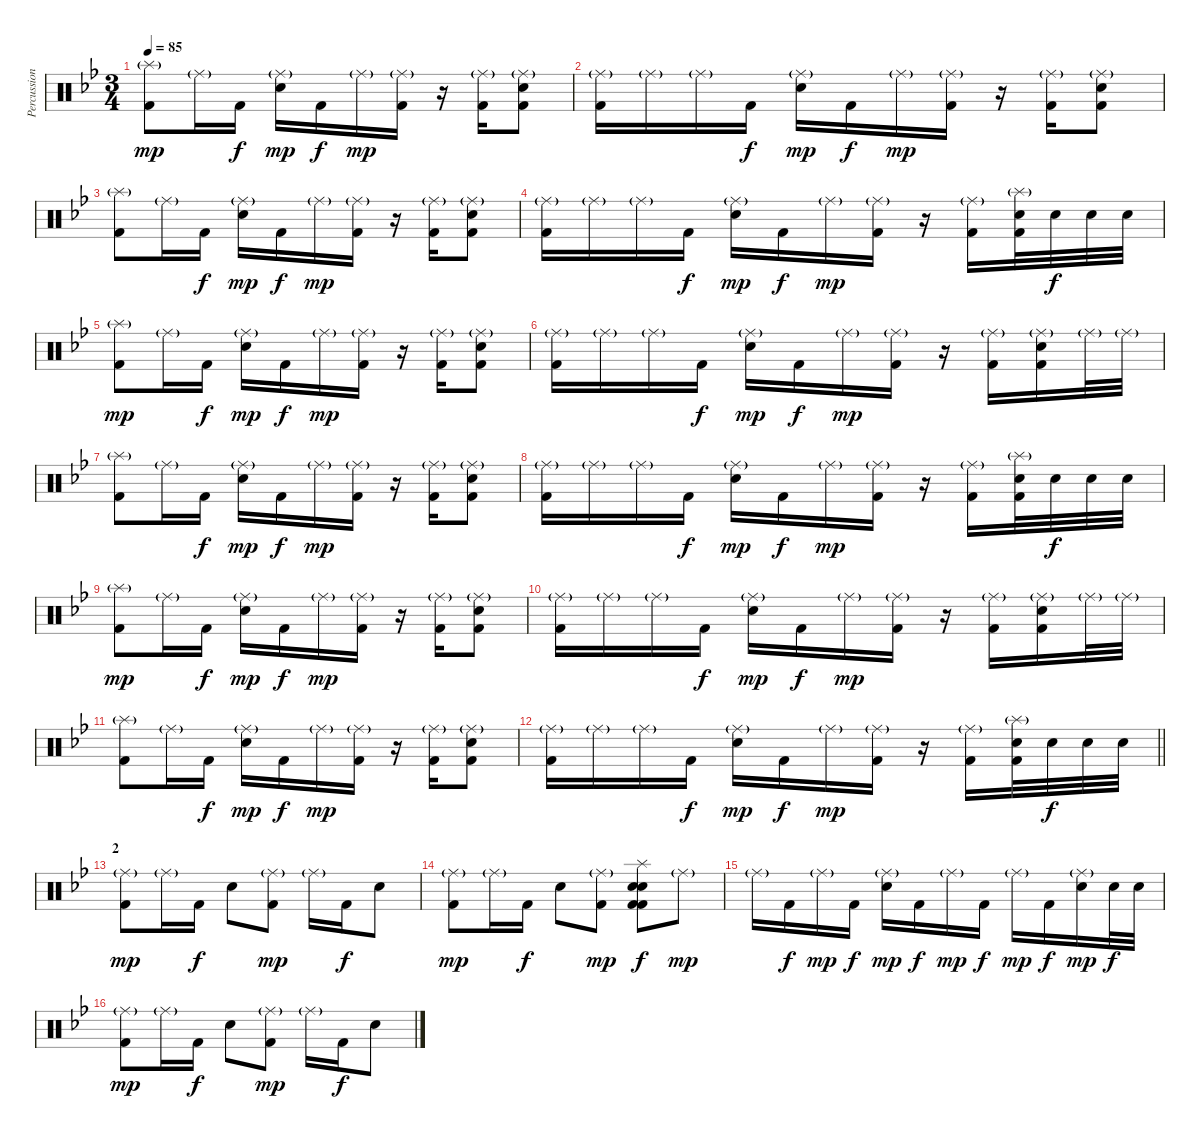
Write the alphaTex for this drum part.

\track ("Percussion" "Percussion") {instrument percussion}
\staff {score}
\articulation defaults
\ts (3 4)
\tempo 85
\clef neutral
\ks bb
("Splash (hit)"{g} "Kick (hit) 2").8{dy mp} "Ride (middle)"{g}.16 "Kick (hit) 2".16{dy f} ("Ride (middle)"{g} "Snare (hit) 2").16{dy mp} "Kick (hit) 2".16{dy f} "Ride (middle)"{g}.16{dy mp} ("Ride (middle)"{g} "Kick (hit) 2").16 r.16 ("Ride (middle)"{g} "Kick (hit) 2").16 ("Ride (middle)"{g} "Snare (hit) 2" "Kick (hit) 2").8 |
("Ride (middle)"{g} "Kick (hit) 2").16 "Ride (middle)"{g}.16 "Ride (middle)"{g}.16 "Kick (hit) 2".16{dy f} ("Ride (middle)"{g} "Snare (hit) 2").16{dy mp} "Kick (hit) 2".16{dy f} "Ride (middle)"{g}.16{dy mp} ("Ride (middle)"{g} "Kick (hit) 2").16 r.16 ("Ride (middle)"{g} "Kick (hit) 2").16 ("Ride (middle)"{g} "Snare (hit) 2" "Kick (hit) 2").8 |
("Splash (hit)"{g} "Kick (hit) 2").8 "Ride (middle)"{g}.16 "Kick (hit) 2".16{dy f} ("Ride (middle)"{g} "Snare (hit) 2").16{dy mp} "Kick (hit) 2".16{dy f} "Ride (middle)"{g}.16{dy mp} ("Ride (middle)"{g} "Kick (hit) 2").16 r.16 ("Ride (middle)"{g} "Kick (hit) 2").16 ("Ride (middle)"{g} "Snare (hit) 2" "Kick (hit) 2").8 |
("Ride (middle)"{g} "Kick (hit) 2").16 "Ride (middle)"{g}.16 "Ride (middle)"{g}.16 "Kick (hit) 2".16{dy f} ("Ride (middle)"{g} "Snare (hit) 2").16{dy mp} "Kick (hit) 2".16{dy f} "Ride (middle)"{g}.16{dy mp} ("Ride (middle)"{g} "Kick (hit) 2").16 r.16 ("Ride (middle)"{g} "Kick (hit) 2").16 ("Splash (hit)"{g} "Snare (hit) 2" "Kick (hit) 2").32 "Snare (hit) 2".32{dy f} "Snare (hit) 2".32 "Snare (hit) 2".32 |
("Splash (hit)"{g} "Kick (hit) 2").8{dy mp} "Ride (middle)"{g}.16 "Kick (hit) 2".16{dy f} ("Ride (middle)"{g} "Snare (hit) 2").16{dy mp} "Kick (hit) 2".16{dy f} "Ride (middle)"{g}.16{dy mp} ("Ride (middle)"{g} "Kick (hit) 2").16 r.16 ("Ride (middle)"{g} "Kick (hit) 2").16 ("Ride (middle)"{g} "Snare (hit) 2" "Kick (hit) 2").8 |
("Ride (middle)"{g} "Kick (hit) 2").16 "Ride (middle)"{g}.16 "Ride (middle)"{g}.16 "Kick (hit) 2".16{dy f} ("Ride (middle)"{g} "Snare (hit) 2").16{dy mp} "Kick (hit) 2".16{dy f} "Ride (middle)"{g}.16{dy mp} ("Ride (middle)"{g} "Kick (hit) 2").16 r.16 ("Ride (middle)"{g} "Kick (hit) 2").16 ("Ride (middle)"{g} "Snare (hit) 2" "Kick (hit) 2").16 "Ride (middle)"{g}.32 "Ride (middle)"{g}.32 |
("Splash (hit)"{g} "Kick (hit) 2").8 "Ride (middle)"{g}.16 "Kick (hit) 2".16{dy f} ("Ride (middle)"{g} "Snare (hit) 2").16{dy mp} "Kick (hit) 2".16{dy f} "Ride (middle)"{g}.16{dy mp} ("Ride (middle)"{g} "Kick (hit) 2").16 r.16 ("Ride (middle)"{g} "Kick (hit) 2").16 ("Ride (middle)"{g} "Snare (hit) 2" "Kick (hit) 2").8 |
("Ride (middle)"{g} "Kick (hit) 2").16 "Ride (middle)"{g}.16 "Ride (middle)"{g}.16 "Kick (hit) 2".16{dy f} ("Ride (middle)"{g} "Snare (hit) 2").16{dy mp} "Kick (hit) 2".16{dy f} "Ride (middle)"{g}.16{dy mp} ("Ride (middle)"{g} "Kick (hit) 2").16 r.16 ("Ride (middle)"{g} "Kick (hit) 2").16 ("Splash (hit)"{g} "Snare (hit) 2" "Kick (hit) 2").32 "Snare (hit) 2".32{dy f} "Snare (hit) 2".32 "Snare (hit) 2".32 |
("Splash (hit)"{g} "Kick (hit) 2").8{dy mp} "Ride (middle)"{g}.16 "Kick (hit) 2".16{dy f} ("Ride (middle)"{g} "Snare (hit) 2").16{dy mp} "Kick (hit) 2".16{dy f} "Ride (middle)"{g}.16{dy mp} ("Ride (middle)"{g} "Kick (hit) 2").16 r.16 ("Ride (middle)"{g} "Kick (hit) 2").16 ("Ride (middle)"{g} "Snare (hit) 2" "Kick (hit) 2").8 |
("Ride (middle)"{g} "Kick (hit) 2").16 "Ride (middle)"{g}.16 "Ride (middle)"{g}.16 "Kick (hit) 2".16{dy f} ("Ride (middle)"{g} "Snare (hit) 2").16{dy mp} "Kick (hit) 2".16{dy f} "Ride (middle)"{g}.16{dy mp} ("Ride (middle)"{g} "Kick (hit) 2").16 r.16 ("Ride (middle)"{g} "Kick (hit) 2").16 ("Ride (middle)"{g} "Snare (hit) 2" "Kick (hit) 2").16 "Ride (middle)"{g}.32 "Ride (middle)"{g}.32 |
("Splash (hit)"{g} "Kick (hit) 2").8 "Ride (middle)"{g}.16 "Kick (hit) 2".16{dy f} ("Ride (middle)"{g} "Snare (hit) 2").16{dy mp} "Kick (hit) 2".16{dy f} "Ride (middle)"{g}.16{dy mp} ("Ride (middle)"{g} "Kick (hit) 2").16 r.16 ("Ride (middle)"{g} "Kick (hit) 2").16 ("Ride (middle)"{g} "Snare (hit) 2" "Kick (hit) 2").8 |
\barLineRight lightlight
("Ride (middle)"{g} "Kick (hit) 2").16 "Ride (middle)"{g}.16 "Ride (middle)"{g}.16 "Kick (hit) 2".16{dy f} ("Ride (middle)"{g} "Snare (hit) 2").16{dy mp} "Kick (hit) 2".16{dy f} "Ride (middle)"{g}.16{dy mp} ("Ride (middle)"{g} "Kick (hit) 2").16 r.16 ("Ride (middle)"{g} "Kick (hit) 2").16 ("Splash (hit)"{g} "Snare (hit) 2" "Kick (hit) 2").32 "Snare (hit) 2".32{dy f} "Snare (hit) 2".32 "Snare (hit) 2".32 |
\section ("" "2")
("Ride (middle)"{g} "Kick (hit) 2").8{dy mp} "Ride (middle)"{g}.16 "Kick (hit) 2".16{dy f} "Snare (hit) 2".8 ("Ride (middle)"{g} "Kick (hit) 2").8{dy mp} "Ride (middle)"{g}.16 "Kick (hit) 2".16{dy f} "Snare (hit) 2".8 |
("Ride (middle)"{g} "Kick (hit) 2").8{dy mp} "Ride (middle)"{g}.16 "Kick (hit) 2".16{dy f} "Snare (hit) 2".8 ("Ride (middle)"{g} "Kick (hit) 2").8{dy mp} ("Splash (hit)" "Snare (hit) 2" "Snare (hit) 2" "Kick (hit) 2" "Kick (hit) 2").8{dy f} "Ride (middle)"{g}.8{dy mp} |
"Ride (middle)"{g}.16 "Kick (hit) 2".16{dy f} "Ride (middle)"{g}.16{dy mp} "Kick (hit) 2".16{dy f} ("Ride (middle)"{g} "Snare (hit) 2").16{dy mp} "Kick (hit) 2".16{dy f} "Ride (middle)"{g}.16{dy mp} "Kick (hit) 2".16{dy f} "Ride (middle)"{g}.16{dy mp} "Kick (hit) 2".16{dy f} ("Ride (middle)"{g} "Snare (hit) 2").16{dy mp} "Snare (hit) 2".32{dy f} "Snare (hit) 2".32 |
("Ride (middle)"{g} "Kick (hit) 2").8{dy mp} "Ride (middle)"{g}.16 "Kick (hit) 2".16{dy f} "Snare (hit) 2".8 ("Ride (middle)"{g} "Kick (hit) 2").8{dy mp} "Ride (middle)"{g}.16 "Kick (hit) 2".16{dy f} "Snare (hit) 2".8
